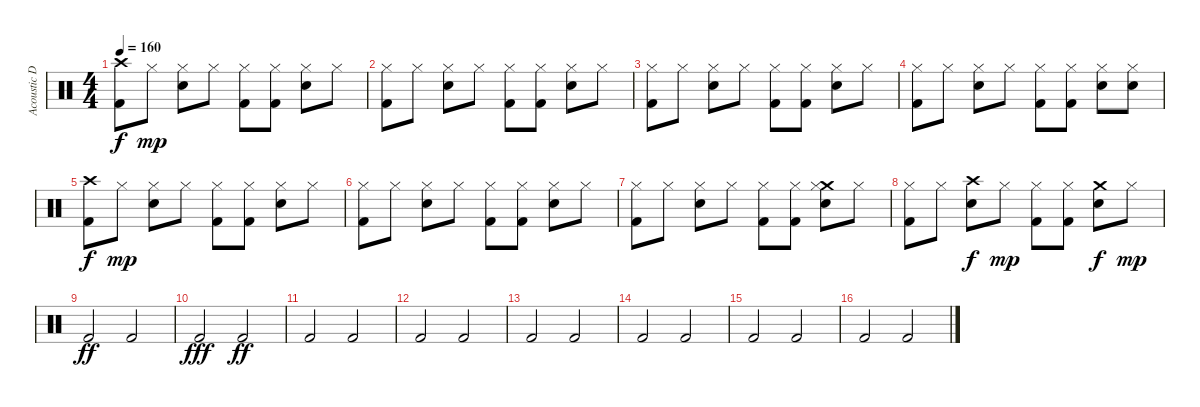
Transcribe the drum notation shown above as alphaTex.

\track ("Acoustic Drums" "Acoustic D") {instrument percussion}
\staff {score}
\articulation defaults
\ts (4 4)
\tempo 160
\clef neutral
\ks c
("Crash high (hit)" "Kick (hit) 2").8{dy f volume 13} "Hi-Hat (closed)".8{dy mp} ("Hi-Hat (closed)" "Snare (hit) 2").8 "Hi-Hat (closed)".8 ("Hi-Hat (closed)" "Kick (hit) 2").8 ("Hi-Hat (closed)" "Kick (hit) 2").8 ("Hi-Hat (closed)" "Snare (hit) 2").8 "Hi-Hat (closed)".8 |
("Hi-Hat (closed)" "Kick (hit) 2").8 "Hi-Hat (closed)".8 ("Hi-Hat (closed)" "Snare (hit) 2").8 "Hi-Hat (closed)".8 ("Hi-Hat (closed)" "Kick (hit) 2").8 ("Hi-Hat (closed)" "Kick (hit) 2").8 ("Hi-Hat (closed)" "Snare (hit) 2").8 "Hi-Hat (closed)".8 |
("Hi-Hat (closed)" "Kick (hit) 2").8 "Hi-Hat (closed)".8 ("Hi-Hat (closed)" "Snare (hit) 2").8 "Hi-Hat (closed)".8 ("Hi-Hat (closed)" "Kick (hit) 2").8 ("Hi-Hat (closed)" "Kick (hit) 2").8 ("Hi-Hat (closed)" "Snare (hit) 2").8 "Hi-Hat (closed)".8 |
("Hi-Hat (closed)" "Kick (hit) 2").8 "Hi-Hat (closed)".8 ("Hi-Hat (closed)" "Snare (hit) 2").8 "Hi-Hat (closed)".8 ("Hi-Hat (closed)" "Kick (hit) 2").8 ("Hi-Hat (closed)" "Kick (hit) 2").8 ("Hi-Hat (closed)" "Snare (hit) 2").8 ("Hi-Hat (closed)" "Snare (hit) 2").8 |
("Crash high (hit)" "Kick (hit) 2").8{dy f} "Hi-Hat (closed)".8{dy mp} ("Hi-Hat (closed)" "Snare (hit) 2").8 "Hi-Hat (closed)".8 ("Hi-Hat (closed)" "Kick (hit) 2").8 ("Hi-Hat (closed)" "Kick (hit) 2").8 ("Hi-Hat (closed)" "Snare (hit) 2").8 "Hi-Hat (closed)".8 |
("Hi-Hat (closed)" "Kick (hit) 2").8 "Hi-Hat (closed)".8 ("Hi-Hat (closed)" "Snare (hit) 2").8 "Hi-Hat (closed)".8 ("Hi-Hat (closed)" "Kick (hit) 2").8 ("Hi-Hat (closed)" "Kick (hit) 2").8 ("Hi-Hat (closed)" "Snare (hit) 2").8 "Hi-Hat (closed)".8 |
("Hi-Hat (closed)" "Kick (hit) 2").8 "Hi-Hat (closed)".8 ("Hi-Hat (closed)" "Snare (hit) 2").8 "Hi-Hat (closed)".8 ("Hi-Hat (closed)" "Kick (hit) 2").8 ("Hi-Hat (closed)" "Kick (hit) 2").8 ("Crash medium (hit)" "Hi-Hat (closed)" "Snare (hit) 2").8 "Hi-Hat (closed)".8 |
("Hi-Hat (closed)" "Kick (hit) 2").8 "Hi-Hat (closed)".8 ("Crash high (hit)" "Snare (hit) 2").8{dy f} "Hi-Hat (closed)".8{dy mp} ("Hi-Hat (closed)" "Kick (hit) 2").8 ("Hi-Hat (closed)" "Kick (hit) 2").8 ("Crash medium (hit)" "Snare (hit) 2").8{dy f} "Hi-Hat (closed)".8{dy mp} |
"Kick (hit) 2".2{dy ff} "Kick (hit) 2".2 |
"Kick (hit) 2".2{dy fff} "Kick (hit) 2".2{dy ff} |
"Kick (hit) 2".2 "Kick (hit) 2".2 |
"Kick (hit) 2".2 "Kick (hit) 2".2 |
"Kick (hit) 2".2 "Kick (hit) 2".2 |
"Kick (hit) 2".2 "Kick (hit) 2".2 |
"Kick (hit) 2".2 "Kick (hit) 2".2 |
"Kick (hit) 2".2 "Kick (hit) 2".2
